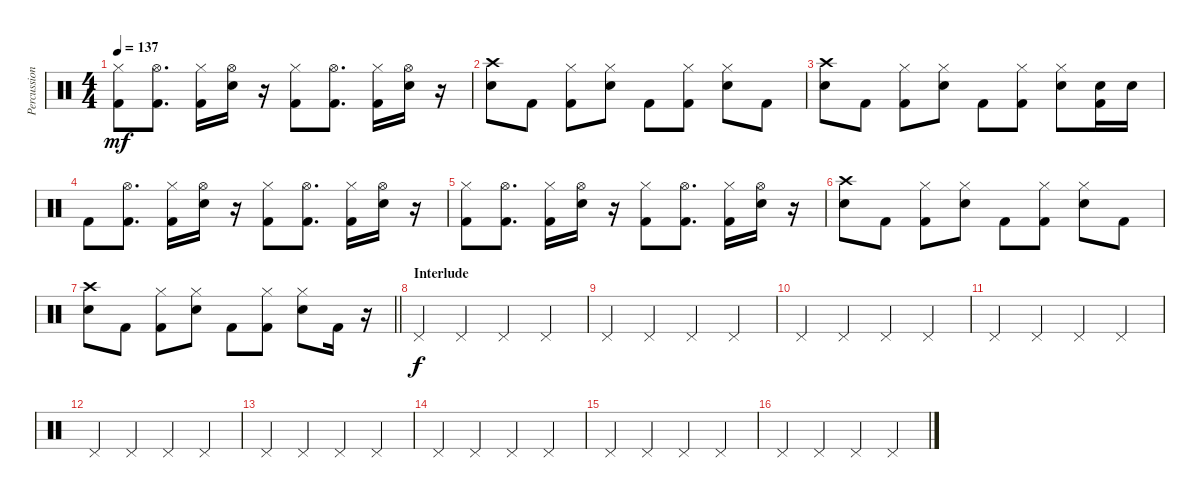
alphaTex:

\track ("Percussion" "Percussion") {instrument percussion}
\staff {score}
\articulation defaults
\ts (4 4)
\tempo 137
\clef neutral
\ks c
("Hi-Hat (closed)" "Kick (hit) 2").8{dy mf} ("Hi-Hat (open)" "Kick (hit) 2").8{d} ("Hi-Hat (closed)" "Kick (hit) 2").16 ("Hi-Hat (open)" "Electric Snare (hit)").16 r.16 ("Hi-Hat (closed)" "Kick (hit) 2").8 ("Hi-Hat (open)" "Kick (hit) 2").8{d} ("Hi-Hat (closed)" "Kick (hit) 2").16 ("Hi-Hat (open)" "Electric Snare (hit)").16 r.16 |
("Crash high (hit)" "Electric Snare (hit)").8 "Kick (hit) 2".8 ("Hi-Hat (closed)" "Kick (hit) 2").8 ("Hi-Hat (closed)" "Electric Snare (hit)").8 "Kick (hit) 2".8 ("Hi-Hat (closed)" "Kick (hit) 2").8 ("Hi-Hat (closed)" "Electric Snare (hit)").8 "Kick (hit) 2".8 |
("Crash high (hit)" "Electric Snare (hit)").8 "Kick (hit) 2".8 ("Hi-Hat (closed)" "Kick (hit) 2").8 ("Hi-Hat (closed)" "Electric Snare (hit)").8 "Kick (hit) 2".8 ("Hi-Hat (closed)" "Kick (hit) 2").8 ("Hi-Hat (closed)" "Electric Snare (hit)").8 ("Electric Snare (hit)" "Kick (hit) 2").16 "Electric Snare (hit)".16 |
"Kick (hit) 2".8 ("Hi-Hat (open)" "Kick (hit) 2").8{d} ("Hi-Hat (closed)" "Kick (hit) 2").16 ("Hi-Hat (open)" "Electric Snare (hit)").16 r.16 ("Hi-Hat (closed)" "Kick (hit) 2").8 ("Hi-Hat (open)" "Kick (hit) 2").8{d} ("Hi-Hat (closed)" "Kick (hit) 2").16 ("Hi-Hat (open)" "Electric Snare (hit)").16 r.16 |
("Hi-Hat (closed)" "Kick (hit) 2").8 ("Hi-Hat (open)" "Kick (hit) 2").8{d} ("Hi-Hat (closed)" "Kick (hit) 2").16 ("Hi-Hat (open)" "Electric Snare (hit)").16 r.16 ("Hi-Hat (closed)" "Kick (hit) 2").8 ("Hi-Hat (open)" "Kick (hit) 2").8{d} ("Hi-Hat (closed)" "Kick (hit) 2").16 ("Hi-Hat (open)" "Electric Snare (hit)").16 r.16 |
("Crash high (hit)" "Electric Snare (hit)").8 "Kick (hit) 2".8 ("Hi-Hat (closed)" "Kick (hit) 2").8 ("Hi-Hat (closed)" "Electric Snare (hit)").8 "Kick (hit) 2".8 ("Hi-Hat (closed)" "Kick (hit) 2").8 ("Hi-Hat (closed)" "Electric Snare (hit)").8 "Kick (hit) 2".8 |
\barLineRight lightlight
("Crash high (hit)" "Electric Snare (hit)").8 "Kick (hit) 2".8 ("Hi-Hat (closed)" "Kick (hit) 2").8 ("Hi-Hat (closed)" "Electric Snare (hit)").8 "Kick (hit) 2".8 ("Hi-Hat (closed)" "Kick (hit) 2").8 ("Hi-Hat (closed)" "Electric Snare (hit)").8 "Kick (hit) 2".16 r.16 |
\section ("" "Interlude")
"Pedal Hi-Hat (hit)".4{dy f} "Pedal Hi-Hat (hit)".4 "Pedal Hi-Hat (hit)".4 "Pedal Hi-Hat (hit)".4 |
"Pedal Hi-Hat (hit)".4 "Pedal Hi-Hat (hit)".4 "Pedal Hi-Hat (hit)".4 "Pedal Hi-Hat (hit)".4 |
"Pedal Hi-Hat (hit)".4 "Pedal Hi-Hat (hit)".4 "Pedal Hi-Hat (hit)".4 "Pedal Hi-Hat (hit)".4 |
"Pedal Hi-Hat (hit)".4 "Pedal Hi-Hat (hit)".4 "Pedal Hi-Hat (hit)".4 "Pedal Hi-Hat (hit)".4 |
"Pedal Hi-Hat (hit)".4 "Pedal Hi-Hat (hit)".4 "Pedal Hi-Hat (hit)".4 "Pedal Hi-Hat (hit)".4 |
"Pedal Hi-Hat (hit)".4 "Pedal Hi-Hat (hit)".4 "Pedal Hi-Hat (hit)".4 "Pedal Hi-Hat (hit)".4 |
"Pedal Hi-Hat (hit)".4 "Pedal Hi-Hat (hit)".4 "Pedal Hi-Hat (hit)".4 "Pedal Hi-Hat (hit)".4 |
"Pedal Hi-Hat (hit)".4 "Pedal Hi-Hat (hit)".4 "Pedal Hi-Hat (hit)".4 "Pedal Hi-Hat (hit)".4 |
"Pedal Hi-Hat (hit)".4 "Pedal Hi-Hat (hit)".4 "Pedal Hi-Hat (hit)".4 "Pedal Hi-Hat (hit)".4
